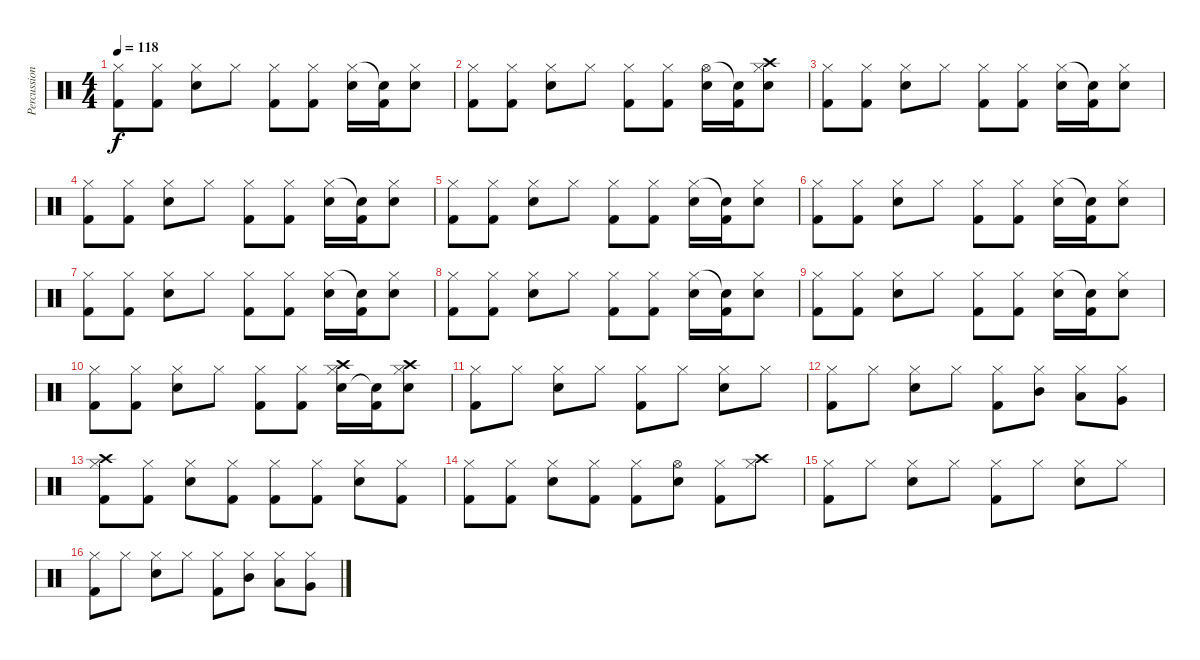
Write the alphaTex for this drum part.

\track ("Percussion" "Percussion") {instrument percussion}
\staff {score}
\articulation defaults
\ts (4 4)
\tempo 118
\clef neutral
\ks c
("Kick (hit) 2" "Hi-Hat (closed)").8{dy f} ("Kick (hit) 2" "Hi-Hat (closed)").8 ("Snare (hit) 2" "Hi-Hat (closed)").8 "Hi-Hat (closed)".8 ("Kick (hit) 2" "Hi-Hat (closed)").8 ("Kick (hit) 2" "Hi-Hat (closed)").8 ("Snare (hit) 2" "Hi-Hat (closed)").16 ("Kick (hit) 2" "Snare (hit)"{t}).16 ("Snare (hit) 2" "Hi-Hat (closed)").8 |
("Kick (hit) 2" "Hi-Hat (closed)").8 ("Kick (hit) 2" "Hi-Hat (closed)").8 ("Snare (hit) 2" "Hi-Hat (closed)").8 "Hi-Hat (closed)".8 ("Kick (hit) 2" "Hi-Hat (closed)").8 ("Kick (hit) 2" "Hi-Hat (closed)").8 ("Snare (hit) 2" "Hi-Hat (open)").16 ("Kick (hit) 2" "Snare (hit)"{t}).16 ("Crash high (hit)" "Snare (hit) 2" "Hi-Hat (closed)").8 |
("Kick (hit) 2" "Hi-Hat (closed)").8 ("Kick (hit) 2" "Hi-Hat (closed)").8 ("Snare (hit) 2" "Hi-Hat (closed)").8 "Hi-Hat (closed)".8 ("Kick (hit) 2" "Hi-Hat (closed)").8 ("Kick (hit) 2" "Hi-Hat (closed)").8 ("Snare (hit) 2" "Hi-Hat (closed)").16 ("Kick (hit) 2" "Snare (hit)"{t}).16 ("Snare (hit) 2" "Hi-Hat (closed)").8 |
("Kick (hit) 2" "Hi-Hat (closed)").8 ("Kick (hit) 2" "Hi-Hat (closed)").8 ("Snare (hit) 2" "Hi-Hat (closed)").8 "Hi-Hat (closed)".8 ("Kick (hit) 2" "Hi-Hat (closed)").8 ("Kick (hit) 2" "Hi-Hat (closed)").8 ("Snare (hit) 2" "Hi-Hat (closed)").16 ("Kick (hit) 2" "Snare (hit)"{t}).16 ("Snare (hit) 2" "Hi-Hat (closed)").8 |
("Kick (hit) 2" "Hi-Hat (closed)").8 ("Kick (hit) 2" "Hi-Hat (closed)").8 ("Snare (hit) 2" "Hi-Hat (closed)").8 "Hi-Hat (closed)".8 ("Kick (hit) 2" "Hi-Hat (closed)").8 ("Kick (hit) 2" "Hi-Hat (closed)").8 ("Snare (hit) 2" "Hi-Hat (closed)").16 ("Kick (hit) 2" "Snare (hit)"{t}).16 ("Snare (hit) 2" "Hi-Hat (closed)").8 |
("Kick (hit) 2" "Hi-Hat (closed)").8 ("Kick (hit) 2" "Hi-Hat (closed)").8 ("Snare (hit) 2" "Hi-Hat (closed)").8 "Hi-Hat (closed)".8 ("Kick (hit) 2" "Hi-Hat (closed)").8 ("Kick (hit) 2" "Hi-Hat (closed)").8 ("Snare (hit) 2" "Hi-Hat (closed)").16 ("Kick (hit) 2" "Snare (hit)"{t}).16 ("Snare (hit) 2" "Hi-Hat (closed)").8 |
("Kick (hit) 2" "Hi-Hat (closed)").8 ("Kick (hit) 2" "Hi-Hat (closed)").8 ("Snare (hit) 2" "Hi-Hat (closed)").8 "Hi-Hat (closed)".8 ("Kick (hit) 2" "Hi-Hat (closed)").8 ("Kick (hit) 2" "Hi-Hat (closed)").8 ("Snare (hit) 2" "Hi-Hat (closed)").16 ("Kick (hit) 2" "Snare (hit)"{t}).16 ("Snare (hit) 2" "Hi-Hat (closed)").8 |
("Kick (hit) 2" "Hi-Hat (closed)").8 ("Kick (hit) 2" "Hi-Hat (closed)").8 ("Snare (hit) 2" "Hi-Hat (closed)").8 "Hi-Hat (closed)".8 ("Kick (hit) 2" "Hi-Hat (closed)").8 ("Kick (hit) 2" "Hi-Hat (closed)").8 ("Snare (hit) 2" "Hi-Hat (closed)").16 ("Kick (hit) 2" "Snare (hit)"{t}).16 ("Snare (hit) 2" "Hi-Hat (closed)").8 |
("Kick (hit) 2" "Hi-Hat (closed)").8 ("Kick (hit) 2" "Hi-Hat (closed)").8 ("Snare (hit) 2" "Hi-Hat (closed)").8 "Hi-Hat (closed)".8 ("Kick (hit) 2" "Hi-Hat (closed)").8 ("Kick (hit) 2" "Hi-Hat (closed)").8 ("Snare (hit) 2" "Hi-Hat (closed)").16 ("Kick (hit) 2" "Snare (hit)"{t}).16 ("Snare (hit) 2" "Hi-Hat (closed)").8 |
("Kick (hit) 2" "Hi-Hat (closed)").8 ("Kick (hit) 2" "Hi-Hat (closed)").8 ("Snare (hit) 2" "Hi-Hat (closed)").8 "Hi-Hat (closed)".8 ("Kick (hit) 2" "Hi-Hat (closed)").8 ("Kick (hit) 2" "Hi-Hat (closed)").8 ("Crash high (hit)" "Snare (hit) 2" "Hi-Hat (closed)").16 ("Kick (hit) 2" "Snare (hit)"{t}).16 ("Crash high (hit)" "Snare (hit) 2" "Hi-Hat (closed)").8 |
("Kick (hit) 2" "Hi-Hat (closed)").8 "Hi-Hat (closed)".8 ("Snare (hit) 2" "Hi-Hat (closed)").8 "Hi-Hat (closed)".8 ("Kick (hit) 2" "Hi-Hat (closed)").8 "Hi-Hat (closed)".8 ("Snare (hit) 2" "Hi-Hat (closed)").8 "Hi-Hat (closed)".8 |
("Kick (hit) 2" "Hi-Hat (closed)").8 "Hi-Hat (closed)".8 ("Snare (hit) 2" "Hi-Hat (closed)").8 "Hi-Hat (closed)".8 ("Kick (hit) 2" "Hi-Hat (closed)").8 ("Mid Tom (hit)" "Hi-Hat (closed)").8 ("Low Tom (hit)" "Hi-Hat (closed)").8 ("Very Low Tom (hit)" "Hi-Hat (closed)").8 |
("Crash high (hit)" "Kick (hit) 2" "Hi-Hat (closed)").8 ("Kick (hit) 2" "Hi-Hat (closed)").8 ("Snare (hit) 2" "Hi-Hat (closed)").8 ("Kick (hit) 2" "Hi-Hat (closed)").8 ("Kick (hit) 2" "Hi-Hat (closed)").8 ("Kick (hit) 2" "Hi-Hat (closed)").8 ("Snare (hit) 2" "Hi-Hat (closed)").8 ("Kick (hit) 2" "Hi-Hat (closed)").8 |
("Kick (hit) 2" "Hi-Hat (closed)").8 ("Kick (hit) 2" "Hi-Hat (closed)").8 ("Snare (hit) 2" "Hi-Hat (closed)").8 ("Kick (hit) 2" "Hi-Hat (closed)").8 ("Kick (hit) 2" "Hi-Hat (closed)").8 ("Snare (hit) 2" "Hi-Hat (open)").8 ("Kick (hit) 2" "Hi-Hat (closed)").8 ("Crash high (hit)" "Hi-Hat (closed)").8 |
("Kick (hit) 2" "Hi-Hat (closed)").8 "Hi-Hat (closed)".8 ("Snare (hit) 2" "Hi-Hat (closed)").8 "Hi-Hat (closed)".8 ("Kick (hit) 2" "Hi-Hat (closed)").8 "Hi-Hat (closed)".8 ("Snare (hit) 2" "Hi-Hat (closed)").8 "Hi-Hat (closed)".8 |
("Kick (hit) 2" "Hi-Hat (closed)").8 "Hi-Hat (closed)".8 ("Snare (hit) 2" "Hi-Hat (closed)").8 "Hi-Hat (closed)".8 ("Kick (hit) 2" "Hi-Hat (closed)").8 ("Mid Tom (hit)" "Hi-Hat (closed)").8 ("Low Tom (hit)" "Hi-Hat (closed)").8 ("Very Low Tom (hit)" "Hi-Hat (closed)").8
